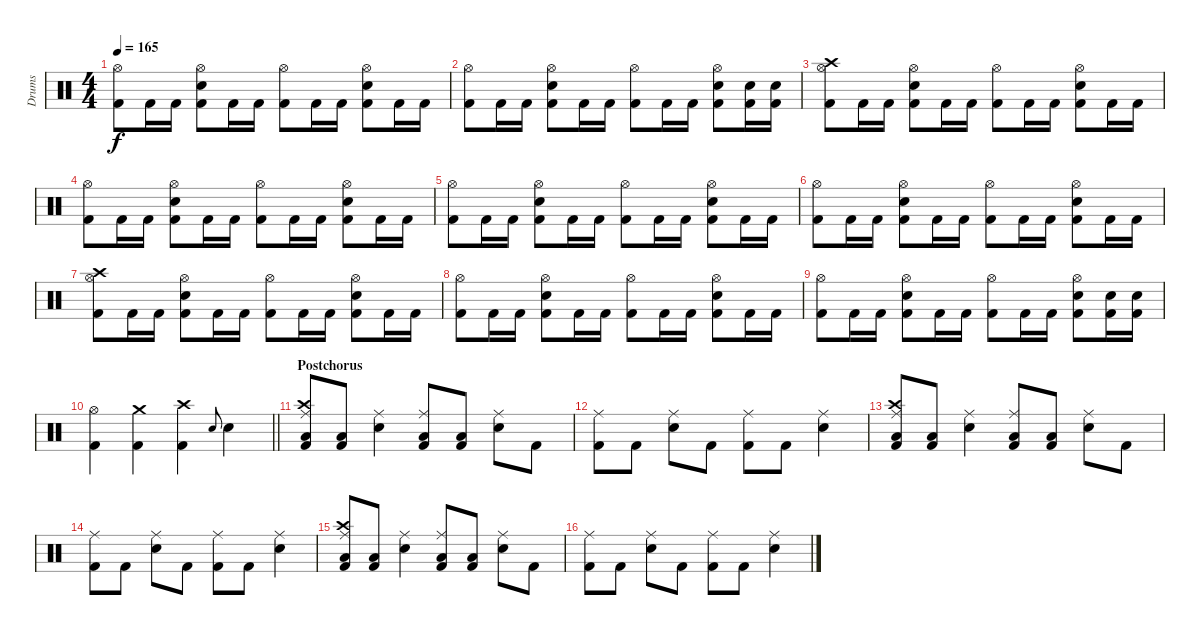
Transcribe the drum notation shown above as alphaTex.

\track ("Drums" "Drums") {instrument percussion}
\staff {score}
\articulation defaults
\ts (4 4)
\tempo 165
\clef neutral
\ks c
("Hi-Hat (open)" "Kick (hit) 2").8{dy f} "Kick (hit) 2".16 "Kick (hit) 2".16 ("Hi-Hat (open)" "Snare (hit) 2" "Kick (hit) 2").8 "Kick (hit) 2".16 "Kick (hit) 2".16 ("Hi-Hat (open)" "Kick (hit) 2").8 "Kick (hit) 2".16 "Kick (hit) 2".16 ("Hi-Hat (open)" "Snare (hit) 2" "Kick (hit) 2").8 "Kick (hit) 2".16 "Kick (hit) 2".16 |
("Hi-Hat (open)" "Kick (hit) 2").8 "Kick (hit) 2".16 "Kick (hit) 2".16 ("Hi-Hat (open)" "Snare (hit) 2" "Kick (hit) 2").8 "Kick (hit) 2".16 "Kick (hit) 2".16 ("Hi-Hat (open)" "Kick (hit) 2").8 "Kick (hit) 2".16 "Kick (hit) 2".16 ("Hi-Hat (open)" "Snare (hit) 2" "Kick (hit) 2").8 ("Snare (hit) 2" "Kick (hit) 2").16 ("Snare (hit) 2" "Kick (hit) 2").16 |
("Crash high (hit)" "Hi-Hat (open)" "Kick (hit) 2").8 "Kick (hit) 2".16 "Kick (hit) 2".16 ("Hi-Hat (open)" "Snare (hit) 2" "Kick (hit) 2").8 "Kick (hit) 2".16 "Kick (hit) 2".16 ("Hi-Hat (open)" "Kick (hit) 2").8 "Kick (hit) 2".16 "Kick (hit) 2".16 ("Hi-Hat (open)" "Snare (hit) 2" "Kick (hit) 2").8 "Kick (hit) 2".16 "Kick (hit) 2".16 |
("Hi-Hat (open)" "Kick (hit) 2").8 "Kick (hit) 2".16 "Kick (hit) 2".16 ("Hi-Hat (open)" "Snare (hit) 2" "Kick (hit) 2").8 "Kick (hit) 2".16 "Kick (hit) 2".16 ("Hi-Hat (open)" "Kick (hit) 2").8 "Kick (hit) 2".16 "Kick (hit) 2".16 ("Hi-Hat (open)" "Snare (hit) 2" "Kick (hit) 2").8 "Kick (hit) 2".16 "Kick (hit) 2".16 |
("Hi-Hat (open)" "Kick (hit) 2").8 "Kick (hit) 2".16 "Kick (hit) 2".16 ("Hi-Hat (open)" "Snare (hit) 2" "Kick (hit) 2").8 "Kick (hit) 2".16 "Kick (hit) 2".16 ("Hi-Hat (open)" "Kick (hit) 2").8 "Kick (hit) 2".16 "Kick (hit) 2".16 ("Hi-Hat (open)" "Snare (hit) 2" "Kick (hit) 2").8 "Kick (hit) 2".16 "Kick (hit) 2".16 |
("Hi-Hat (open)" "Kick (hit) 2").8 "Kick (hit) 2".16 "Kick (hit) 2".16 ("Hi-Hat (open)" "Snare (hit) 2" "Kick (hit) 2").8 "Kick (hit) 2".16 "Kick (hit) 2".16 ("Hi-Hat (open)" "Kick (hit) 2").8 "Kick (hit) 2".16 "Kick (hit) 2".16 ("Hi-Hat (open)" "Snare (hit) 2" "Kick (hit) 2").8 "Kick (hit) 2".16 "Kick (hit) 2".16 |
("Crash high (hit)" "Hi-Hat (open)" "Kick (hit) 2").8 "Kick (hit) 2".16 "Kick (hit) 2".16 ("Hi-Hat (open)" "Snare (hit) 2" "Kick (hit) 2").8 "Kick (hit) 2".16 "Kick (hit) 2".16 ("Hi-Hat (open)" "Kick (hit) 2").8 "Kick (hit) 2".16 "Kick (hit) 2".16 ("Hi-Hat (open)" "Snare (hit) 2" "Kick (hit) 2").8 "Kick (hit) 2".16 "Kick (hit) 2".16 |
("Hi-Hat (open)" "Kick (hit) 2").8 "Kick (hit) 2".16 "Kick (hit) 2".16 ("Hi-Hat (open)" "Snare (hit) 2" "Kick (hit) 2").8 "Kick (hit) 2".16 "Kick (hit) 2".16 ("Hi-Hat (open)" "Kick (hit) 2").8 "Kick (hit) 2".16 "Kick (hit) 2".16 ("Hi-Hat (open)" "Snare (hit) 2" "Kick (hit) 2").8 "Kick (hit) 2".16 "Kick (hit) 2".16 |
("Hi-Hat (open)" "Kick (hit) 2").8 "Kick (hit) 2".16 "Kick (hit) 2".16 ("Hi-Hat (open)" "Snare (hit) 2" "Kick (hit) 2").8 "Kick (hit) 2".16 "Kick (hit) 2".16 ("Hi-Hat (open)" "Kick (hit) 2").8 "Kick (hit) 2".16 "Kick (hit) 2".16 ("Hi-Hat (open)" "Snare (hit) 2" "Kick (hit) 2").8 ("Snare (hit) 2" "Kick (hit) 2").16 ("Snare (hit) 2" "Kick (hit) 2").16 |
\barLineRight lightlight
("Hi-Hat (open)" "Kick (hit) 2").4 ("Crash medium (hit)" "Kick (hit) 2").4 ("Crash high (hit)" "Kick (hit) 2").4 "Snare (hit) 2".8{gr onbeat} "Snare (hit) 2".4 |
\section ("" "Postchorus")
("Crash high (hit)" "Ride (middle)" "Low Floor Tom (hit)" "Kick (hit) 2").8 ("Low Floor Tom (hit)" "Kick (hit) 2").8 ("Ride (middle)" "Snare (hit) 2").4 ("Ride (middle)" "Low Floor Tom (hit)" "Kick (hit) 2").8 ("Low Floor Tom (hit)" "Kick (hit) 2").8 ("Ride (middle)" "Snare (hit) 2").8 "Kick (hit) 2".8 |
("Ride (middle)" "Kick (hit) 2").8 "Kick (hit) 2".8 ("Ride (middle)" "Snare (hit) 2").8 "Kick (hit) 2".8 ("Ride (middle)" "Kick (hit) 2").8 "Kick (hit) 2".8 ("Ride (middle)" "Snare (hit) 2").4 |
("Crash high (hit)" "Ride (middle)" "Low Floor Tom (hit)" "Kick (hit) 2").8 ("Low Floor Tom (hit)" "Kick (hit) 2").8 ("Ride (middle)" "Snare (hit) 2").4 ("Ride (middle)" "Low Floor Tom (hit)" "Kick (hit) 2").8 ("Low Floor Tom (hit)" "Kick (hit) 2").8 ("Ride (middle)" "Snare (hit) 2").8 "Kick (hit) 2".8 |
("Ride (middle)" "Kick (hit) 2").8 "Kick (hit) 2".8 ("Ride (middle)" "Snare (hit) 2").8 "Kick (hit) 2".8 ("Ride (middle)" "Kick (hit) 2").8 "Kick (hit) 2".8 ("Ride (middle)" "Snare (hit) 2").4 |
("Crash high (hit)" "Ride (middle)" "Low Floor Tom (hit)" "Kick (hit) 2").8 ("Low Floor Tom (hit)" "Kick (hit) 2").8 ("Ride (middle)" "Snare (hit) 2").4 ("Ride (middle)" "Low Floor Tom (hit)" "Kick (hit) 2").8 ("Low Floor Tom (hit)" "Kick (hit) 2").8 ("Ride (middle)" "Snare (hit) 2").8 "Kick (hit) 2".8 |
("Ride (middle)" "Kick (hit) 2").8 "Kick (hit) 2".8 ("Ride (middle)" "Snare (hit) 2").8 "Kick (hit) 2".8 ("Ride (middle)" "Kick (hit) 2").8 "Kick (hit) 2".8 ("Ride (middle)" "Snare (hit) 2").4
